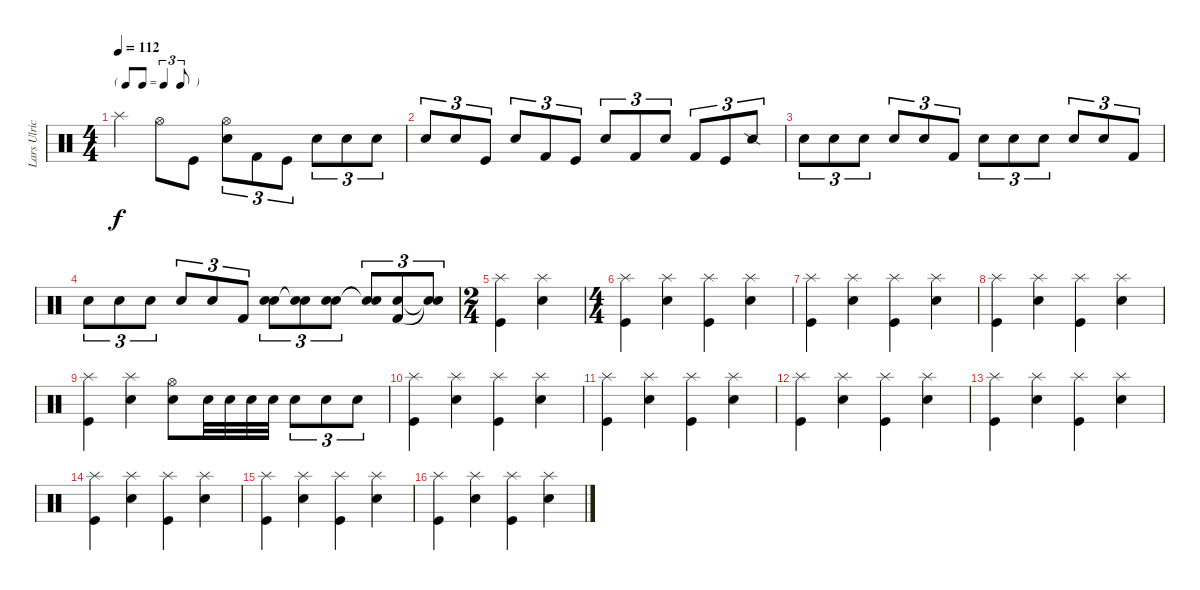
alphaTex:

\track ("Lars Ulrich (Drums)" "Lars Ulric") {instrument percussion}
\staff {score}
\articulation defaults
\ts (4 4)
\tf triplet8th
\tempo 112
\clef neutral
\ks c "Splash (hit)".4{dy f} "Hi-Hat (open)".8 "Kick (hit)".8
("Electric Snare (hit)" "Hi-Hat (open)").8{tu (3 2)} "Kick (hit) 2".8{tu (3 2)} "Kick (hit)".8{tu (3 2)} "Electric Snare (hit)".8{tu (3 2)} "Electric Snare (hit)".8{tu (3 2)} "Electric Snare (hit)".8{tu (3 2)} |
"Electric Snare (hit)".8{tu (3 2)} "Electric Snare (hit)".8{tu (3 2)} "Kick (hit)".8{tu (3 2)} "Snare (hit) 2".8{tu (3 2)} "Kick (hit) 2".8{tu (3 2)} "Kick (hit)".8{tu (3 2)} "Electric Snare (hit)".8{tu (3 2)} "Kick (hit) 2".8{tu (3 2)} "Snare (hit) 2".8{tu (3 2)} "Kick (hit) 2".8{tu (3 2)} "Kick (hit)".8{tu (3 2)} "Snare (side stick) 2".8{tu (3 2)} |
"Electric Snare (hit)".8{tu (3 2)} "Electric Snare (hit)".8{tu (3 2)} "Electric Snare (hit)".8{tu (3 2)} "Electric Snare (hit)".8{tu (3 2)} "Snare (hit) 2".8{tu (3 2)} "Kick (hit) 2".8{tu (3 2)} "Electric Snare (hit)".8{tu (3 2)} "Electric Snare (hit)".8{tu (3 2)} "Electric Snare (hit)".8{tu (3 2)} "Electric Snare (hit)".8{tu (3 2)} "Snare (hit) 2".8{tu (3 2)} "Kick (hit) 2".8{tu (3 2)} |
"Electric Snare (hit)".8{tu (3 2)} "Electric Snare (hit)".8{tu (3 2)} "Electric Snare (hit)".8{tu (3 2)} "Electric Snare (hit)".8{tu (3 2)} "Snare (hit) 2".8{tu (3 2)} "Kick (hit) 2".8{tu (3 2)} ("Electric Snare (hit)" "Snare (hit) 2").8{tu (3 2)} ("Snare (hit)"{t} "Snare (hit)"{t}).8{tu (3 2)} ("Electric Snare (hit)" "Snare (hit) 2").8{tu (3 2)} ("Snare (hit)"{t} "Snare (hit)"{t}).8{tu (3 2)} ("Electric Snare (hit)" "Kick (hit) 2").8{tu (3 2)} ("Snare (hit)"{t} "Snare (hit)"{t}).8{tu (3 2)} |
\ts (2 4)
("Splash (hit)" "Kick (hit)").4 ("Splash (hit)" "Electric Snare (hit)").4 |
\ts (4 4)
("Splash (hit)" "Kick (hit)").4 ("Splash (hit)" "Electric Snare (hit)").4 ("Splash (hit)" "Kick (hit)").4 ("Splash (hit)" "Electric Snare (hit)").4 |
("Splash (hit)" "Kick (hit)").4 ("Splash (hit)" "Electric Snare (hit)").4 ("Splash (hit)" "Kick (hit)").4 ("Splash (hit)" "Electric Snare (hit)").4 |
("Splash (hit)" "Kick (hit)").4 ("Splash (hit)" "Electric Snare (hit)").4 ("Splash (hit)" "Kick (hit)").4 ("Splash (hit)" "Electric Snare (hit)").4 |
("Splash (hit)" "Kick (hit)").4 ("Splash (hit)" "Electric Snare (hit)").4 ("Electric Snare (hit)" "Hi-Hat (open)").8 "Electric Snare (hit)".32 "Electric Snare (hit)".32 "Electric Snare (hit)".32 "Electric Snare (hit)".32 "Electric Snare (hit)".8{tu (3 2)} "Electric Snare (hit)".8{tu (3 2)} "Electric Snare (hit)".8{tu (3 2)} |
("Splash (hit)" "Kick (hit)").4 ("Splash (hit)" "Electric Snare (hit)").4 ("Splash (hit)" "Kick (hit)").4 ("Splash (hit)" "Electric Snare (hit)").4 |
("Splash (hit)" "Kick (hit)").4 ("Splash (hit)" "Electric Snare (hit)").4 ("Splash (hit)" "Kick (hit)").4 ("Splash (hit)" "Electric Snare (hit)").4 |
("Splash (hit)" "Kick (hit)").4 ("Splash (hit)" "Electric Snare (hit)").4 ("Splash (hit)" "Kick (hit)").4 ("Splash (hit)" "Electric Snare (hit)").4 |
("Splash (hit)" "Kick (hit)").4 ("Splash (hit)" "Electric Snare (hit)").4 ("Splash (hit)" "Kick (hit)").4 ("Splash (hit)" "Electric Snare (hit)").4 |
("Splash (hit)" "Kick (hit)").4 ("Splash (hit)" "Electric Snare (hit)").4 ("Splash (hit)" "Kick (hit)").4 ("Splash (hit)" "Electric Snare (hit)").4 |
("Splash (hit)" "Kick (hit)").4 ("Splash (hit)" "Electric Snare (hit)").4 ("Splash (hit)" "Kick (hit)").4 ("Splash (hit)" "Electric Snare (hit)").4 |
("Splash (hit)" "Kick (hit)").4 ("Splash (hit)" "Electric Snare (hit)").4 ("Splash (hit)" "Kick (hit)").4 ("Splash (hit)" "Electric Snare (hit)").4
